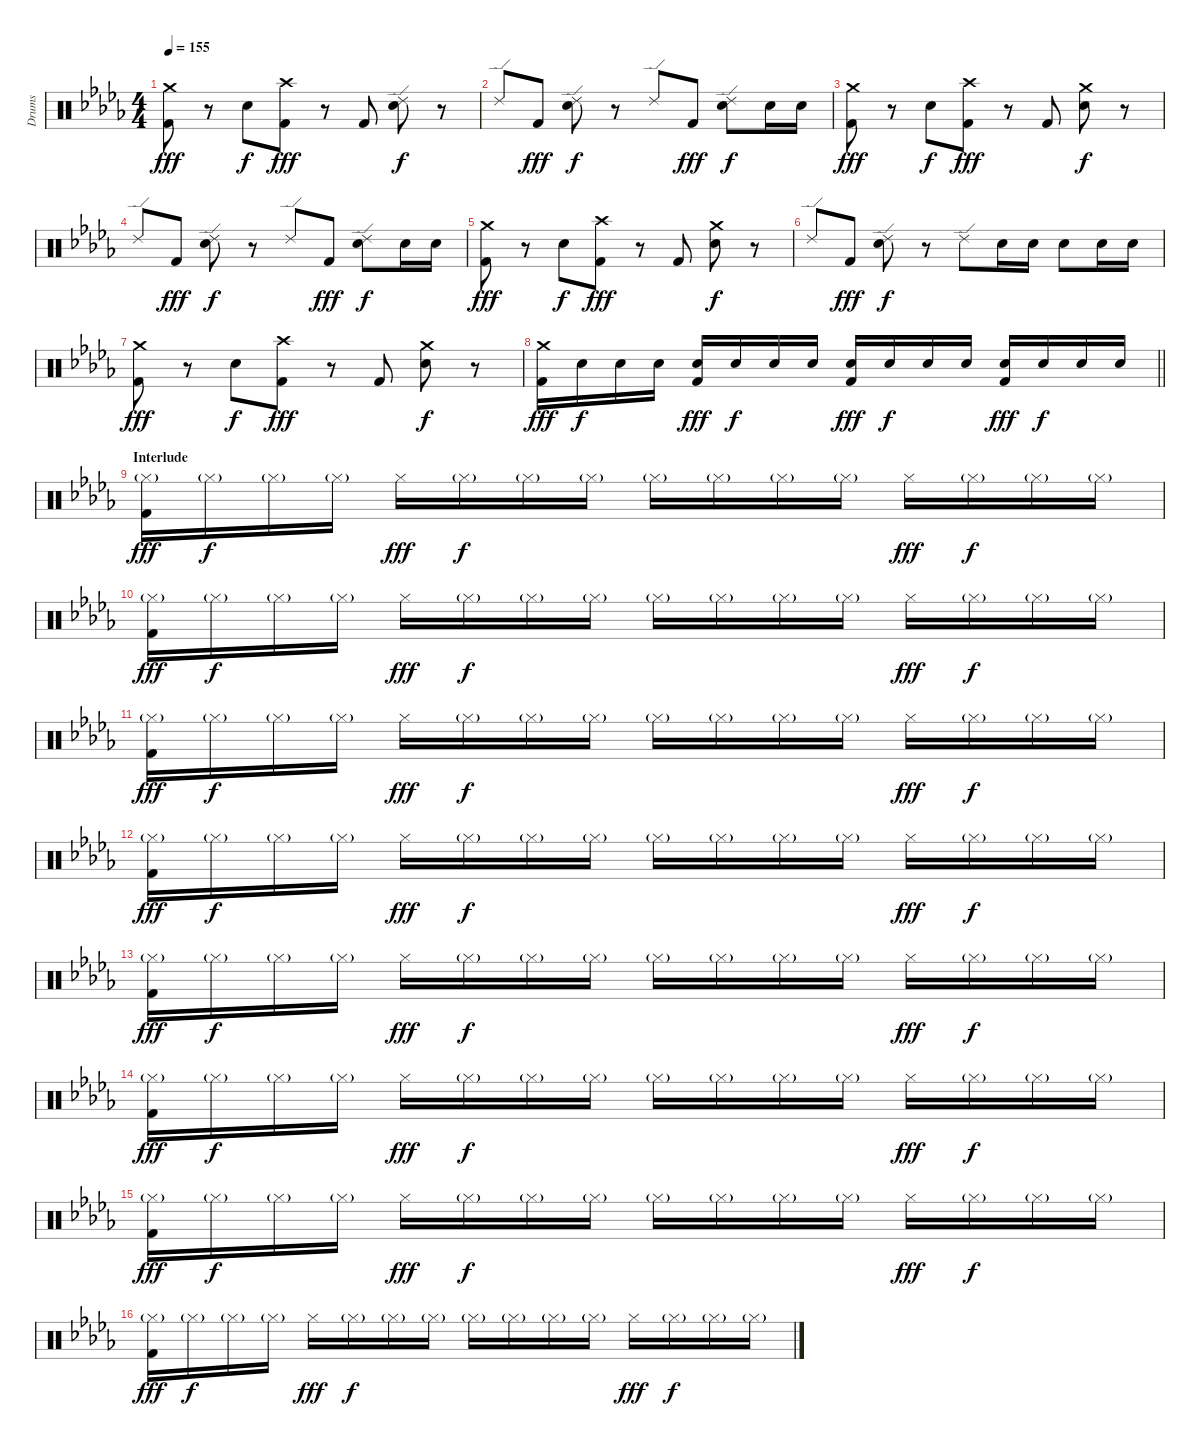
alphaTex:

\track ("Drums" "Drums") {instrument percussion}
\staff {score}
\articulation defaults
\ts (4 4)
\tempo 155
\clef neutral
\ks db
("Crash medium (hit)" "Kick (hit) 2").8{dy fff} r.8 "Electric Snare (hit)".8{dy f} ("Crash high (hit)" "Kick (hit) 2").8{dy fff} r.8 "Kick (hit) 2".8 ("Ride (edge) 2" "Electric Snare (hit)").8{dy f} r.8 |
"Ride (edge) 2".8 "Kick (hit) 2".8{dy fff} ("Ride (edge) 2" "Electric Snare (hit)").8{dy f} r.8 "Ride (edge) 2".8 "Kick (hit) 2".8{dy fff} ("Ride (edge) 2" "Electric Snare (hit)").8{dy f} "Electric Snare (hit)".16 "Electric Snare (hit)".16 |
("Crash medium (hit)" "Kick (hit) 2").8{dy fff} r.8 "Electric Snare (hit)".8{dy f} ("Crash high (hit)" "Kick (hit) 2").8{dy fff} r.8 "Kick (hit) 2".8 ("Crash medium (hit)" "Electric Snare (hit)").8{dy f} r.8 |
"Ride (edge) 2".8 "Kick (hit) 2".8{dy fff} ("Ride (edge) 2" "Electric Snare (hit)").8{dy f} r.8 "Ride (edge) 2".8 "Kick (hit) 2".8{dy fff} ("Ride (edge) 2" "Electric Snare (hit)").8{dy f} "Electric Snare (hit)".16 "Electric Snare (hit)".16 |
("Crash medium (hit)" "Kick (hit) 2").8{dy fff} r.8 "Electric Snare (hit)".8{dy f} ("Crash high (hit)" "Kick (hit) 2").8{dy fff} r.8 "Kick (hit) 2".8 ("Crash medium (hit)" "Electric Snare (hit)").8{dy f} r.8 |
"Ride (edge) 2".8 "Kick (hit) 2".8{dy fff} ("Ride (edge) 2" "Electric Snare (hit)").8{dy f} r.8 "Ride (edge) 2".8 "Electric Snare (hit)".16 "Electric Snare (hit)".16 "Electric Snare (hit)".8 "Electric Snare (hit)".16 "Electric Snare (hit)".16 |
("Crash medium (hit)" "Kick (hit) 2").8{dy fff} r.8 "Electric Snare (hit)".8{dy f} ("Crash high (hit)" "Kick (hit) 2").8{dy fff} r.8 "Kick (hit) 2".8 ("Crash medium (hit)" "Electric Snare (hit)").8{dy f} r.8 |
\barLineRight lightlight
("Crash medium (hit)" "Kick (hit) 2").16{dy fff} "Electric Snare (hit)".16{dy f} "Electric Snare (hit)".16 "Electric Snare (hit)".16 ("Electric Snare (hit)" "Kick (hit) 2").16{dy fff} "Electric Snare (hit)".16{dy f} "Electric Snare (hit)".16 "Electric Snare (hit)".16 ("Electric Snare (hit)" "Kick (hit) 2").16{dy fff} "Electric Snare (hit)".16{dy f} "Electric Snare (hit)".16 "Electric Snare (hit)".16 ("Electric Snare (hit)" "Kick (hit) 2").16{dy fff} "Electric Snare (hit)".16{dy f} "Electric Snare (hit)".16 "Electric Snare (hit)".16 |
\section ("" "Interlude")
("Hi-Hat (closed)"{g} "Kick (hit) 2").16{dy fff} "Hi-Hat (closed)"{g}.16{dy f} "Hi-Hat (closed)"{g}.16 "Hi-Hat (closed)"{g}.16 "Hi-Hat (closed)".16{dy fff} "Hi-Hat (closed)"{g}.16{dy f} "Hi-Hat (closed)"{g}.16 "Hi-Hat (closed)"{g}.16 "Hi-Hat (closed)"{g}.16 "Hi-Hat (closed)"{g}.16 "Hi-Hat (closed)"{g}.16 "Hi-Hat (closed)"{g}.16 "Hi-Hat (closed)".16{dy fff} "Hi-Hat (closed)"{g}.16{dy f} "Hi-Hat (closed)"{g}.16 "Hi-Hat (closed)"{g}.16 |
("Hi-Hat (closed)"{g} "Kick (hit) 2").16{dy fff} "Hi-Hat (closed)"{g}.16{dy f} "Hi-Hat (closed)"{g}.16 "Hi-Hat (closed)"{g}.16 "Hi-Hat (closed)".16{dy fff} "Hi-Hat (closed)"{g}.16{dy f} "Hi-Hat (closed)"{g}.16 "Hi-Hat (closed)"{g}.16 "Hi-Hat (closed)"{g}.16 "Hi-Hat (closed)"{g}.16 "Hi-Hat (closed)"{g}.16 "Hi-Hat (closed)"{g}.16 "Hi-Hat (closed)".16{dy fff} "Hi-Hat (closed)"{g}.16{dy f} "Hi-Hat (closed)"{g}.16 "Hi-Hat (closed)"{g}.16 |
("Hi-Hat (closed)"{g} "Kick (hit) 2").16{dy fff} "Hi-Hat (closed)"{g}.16{dy f} "Hi-Hat (closed)"{g}.16 "Hi-Hat (closed)"{g}.16 "Hi-Hat (closed)".16{dy fff} "Hi-Hat (closed)"{g}.16{dy f} "Hi-Hat (closed)"{g}.16 "Hi-Hat (closed)"{g}.16 "Hi-Hat (closed)"{g}.16 "Hi-Hat (closed)"{g}.16 "Hi-Hat (closed)"{g}.16 "Hi-Hat (closed)"{g}.16 "Hi-Hat (closed)".16{dy fff} "Hi-Hat (closed)"{g}.16{dy f} "Hi-Hat (closed)"{g}.16 "Hi-Hat (closed)"{g}.16 |
("Hi-Hat (closed)"{g} "Kick (hit) 2").16{dy fff} "Hi-Hat (closed)"{g}.16{dy f} "Hi-Hat (closed)"{g}.16 "Hi-Hat (closed)"{g}.16 "Hi-Hat (closed)".16{dy fff} "Hi-Hat (closed)"{g}.16{dy f} "Hi-Hat (closed)"{g}.16 "Hi-Hat (closed)"{g}.16 "Hi-Hat (closed)"{g}.16 "Hi-Hat (closed)"{g}.16 "Hi-Hat (closed)"{g}.16 "Hi-Hat (closed)"{g}.16 "Hi-Hat (closed)".16{dy fff} "Hi-Hat (closed)"{g}.16{dy f} "Hi-Hat (closed)"{g}.16 "Hi-Hat (closed)"{g}.16 |
("Hi-Hat (closed)"{g} "Kick (hit) 2").16{dy fff} "Hi-Hat (closed)"{g}.16{dy f} "Hi-Hat (closed)"{g}.16 "Hi-Hat (closed)"{g}.16 "Hi-Hat (closed)".16{dy fff} "Hi-Hat (closed)"{g}.16{dy f} "Hi-Hat (closed)"{g}.16 "Hi-Hat (closed)"{g}.16 "Hi-Hat (closed)"{g}.16 "Hi-Hat (closed)"{g}.16 "Hi-Hat (closed)"{g}.16 "Hi-Hat (closed)"{g}.16 "Hi-Hat (closed)".16{dy fff} "Hi-Hat (closed)"{g}.16{dy f} "Hi-Hat (closed)"{g}.16 "Hi-Hat (closed)"{g}.16 |
("Hi-Hat (closed)"{g} "Kick (hit) 2").16{dy fff} "Hi-Hat (closed)"{g}.16{dy f} "Hi-Hat (closed)"{g}.16 "Hi-Hat (closed)"{g}.16 "Hi-Hat (closed)".16{dy fff} "Hi-Hat (closed)"{g}.16{dy f} "Hi-Hat (closed)"{g}.16 "Hi-Hat (closed)"{g}.16 "Hi-Hat (closed)"{g}.16 "Hi-Hat (closed)"{g}.16 "Hi-Hat (closed)"{g}.16 "Hi-Hat (closed)"{g}.16 "Hi-Hat (closed)".16{dy fff} "Hi-Hat (closed)"{g}.16{dy f} "Hi-Hat (closed)"{g}.16 "Hi-Hat (closed)"{g}.16 |
("Hi-Hat (closed)"{g} "Kick (hit) 2").16{dy fff} "Hi-Hat (closed)"{g}.16{dy f} "Hi-Hat (closed)"{g}.16 "Hi-Hat (closed)"{g}.16 "Hi-Hat (closed)".16{dy fff} "Hi-Hat (closed)"{g}.16{dy f} "Hi-Hat (closed)"{g}.16 "Hi-Hat (closed)"{g}.16 "Hi-Hat (closed)"{g}.16 "Hi-Hat (closed)"{g}.16 "Hi-Hat (closed)"{g}.16 "Hi-Hat (closed)"{g}.16 "Hi-Hat (closed)".16{dy fff} "Hi-Hat (closed)"{g}.16{dy f} "Hi-Hat (closed)"{g}.16 "Hi-Hat (closed)"{g}.16 |
("Hi-Hat (closed)"{g} "Kick (hit) 2").16{dy fff} "Hi-Hat (closed)"{g}.16{dy f} "Hi-Hat (closed)"{g}.16 "Hi-Hat (closed)"{g}.16 "Hi-Hat (closed)".16{dy fff} "Hi-Hat (closed)"{g}.16{dy f} "Hi-Hat (closed)"{g}.16 "Hi-Hat (closed)"{g}.16 "Hi-Hat (closed)"{g}.16 "Hi-Hat (closed)"{g}.16 "Hi-Hat (closed)"{g}.16 "Hi-Hat (closed)"{g}.16 "Hi-Hat (closed)".16{dy fff} "Hi-Hat (closed)"{g}.16{dy f} "Hi-Hat (closed)"{g}.16 "Hi-Hat (closed)"{g}.16
